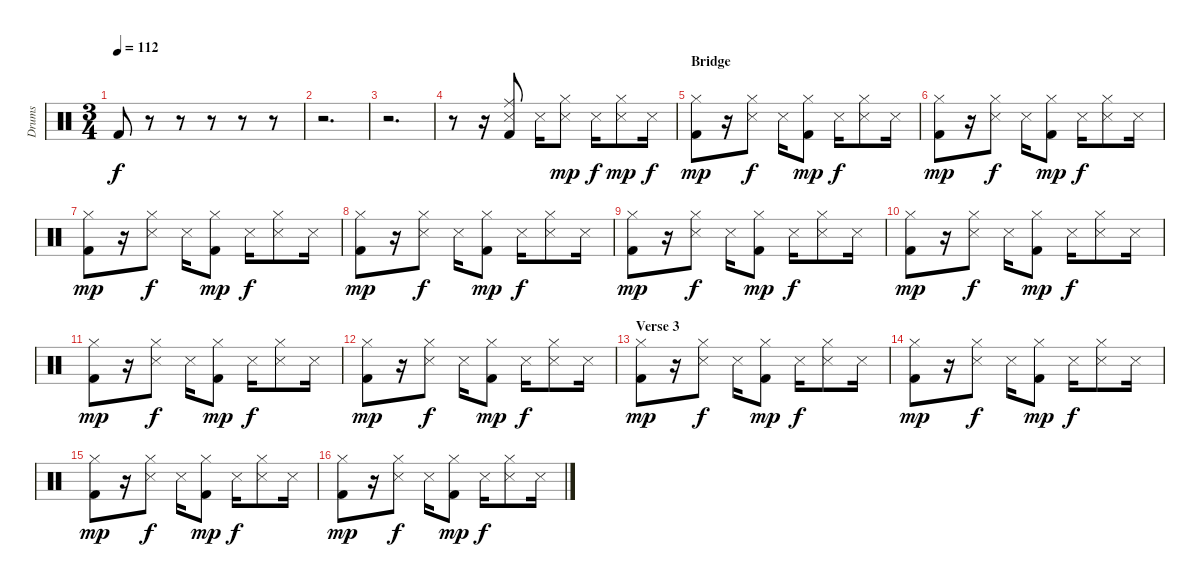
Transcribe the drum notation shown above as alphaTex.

\track ("Drums" "Drums") {instrument percussion}
\staff {score}
\articulation defaults
\ts (3 4)
\tempo 112
\clef neutral
\ks c "Kick (hit) 2".8{dy f}
r.8 r.8 r.8 r.8 r.8 |
r.2{d} |
r.2{d} |
r.8 r.16 ("Ride (middle)" "Snare (side stick) 3" "Kick (hit) 2").8 "Snare (side stick) 3".16 ("Hi-Hat (closed)" "Snare (side stick) 3").8{dy mp} "Snare (side stick) 3".16{dy f} ("Hi-Hat (closed)" "Snare (side stick) 3").8{dy mp} "Snare (side stick) 3".16{dy f} |
\section ("" "Bridge")
("Hi-Hat (closed)" "Kick (hit) 2").8{dy mp} r.16 ("Hi-Hat (closed)" "Snare (side stick) 3").8{dy f} "Snare (side stick) 3".16 ("Hi-Hat (closed)" "Kick (hit) 2").8{dy mp} "Snare (side stick) 3".16{dy f} ("Hi-Hat (closed)" "Snare (side stick) 3").8 "Snare (side stick) 3".16 |
("Hi-Hat (closed)" "Kick (hit) 2").8{dy mp} r.16 ("Hi-Hat (closed)" "Snare (side stick) 3").8{dy f} "Snare (side stick) 3".16 ("Hi-Hat (closed)" "Kick (hit) 2").8{dy mp} "Snare (side stick) 3".16{dy f} ("Hi-Hat (closed)" "Snare (side stick) 3").8 "Snare (side stick) 3".16 |
("Hi-Hat (closed)" "Kick (hit) 2").8{dy mp} r.16 ("Hi-Hat (closed)" "Snare (side stick) 3").8{dy f} "Snare (side stick) 3".16 ("Hi-Hat (closed)" "Kick (hit) 2").8{dy mp} "Snare (side stick) 3".16{dy f} ("Hi-Hat (closed)" "Snare (side stick) 3").8 "Snare (side stick) 3".16 |
("Hi-Hat (closed)" "Kick (hit) 2").8{dy mp} r.16 ("Hi-Hat (closed)" "Snare (side stick) 3").8{dy f} "Snare (side stick) 3".16 ("Hi-Hat (closed)" "Kick (hit) 2").8{dy mp} "Snare (side stick) 3".16{dy f} ("Hi-Hat (closed)" "Snare (side stick) 3").8 "Snare (side stick) 3".16 |
("Hi-Hat (closed)" "Kick (hit) 2").8{dy mp} r.16 ("Hi-Hat (closed)" "Snare (side stick) 3").8{dy f} "Snare (side stick) 3".16 ("Hi-Hat (closed)" "Kick (hit) 2").8{dy mp} "Snare (side stick) 3".16{dy f} ("Hi-Hat (closed)" "Snare (side stick) 3").8 "Snare (side stick) 3".16 |
("Hi-Hat (closed)" "Kick (hit) 2").8{dy mp} r.16 ("Hi-Hat (closed)" "Snare (side stick) 3").8{dy f} "Snare (side stick) 3".16 ("Hi-Hat (closed)" "Kick (hit) 2").8{dy mp} "Snare (side stick) 3".16{dy f} ("Hi-Hat (closed)" "Snare (side stick) 3").8 "Snare (side stick) 3".16 |
("Hi-Hat (closed)" "Kick (hit) 2").8{dy mp} r.16 ("Hi-Hat (closed)" "Snare (side stick) 3").8{dy f} "Snare (side stick) 3".16 ("Hi-Hat (closed)" "Kick (hit) 2").8{dy mp} "Snare (side stick) 3".16{dy f} ("Hi-Hat (closed)" "Snare (side stick) 3").8 "Snare (side stick) 3".16 |
("Hi-Hat (closed)" "Kick (hit) 2").8{dy mp} r.16 ("Hi-Hat (closed)" "Snare (side stick) 3").8{dy f} "Snare (side stick) 3".16 ("Hi-Hat (closed)" "Kick (hit) 2").8{dy mp} "Snare (side stick) 3".16{dy f} ("Hi-Hat (closed)" "Snare (side stick) 3").8 "Snare (side stick) 3".16 |
\section ("" "Verse 3")
("Hi-Hat (closed)" "Kick (hit) 2").8{dy mp} r.16 ("Hi-Hat (closed)" "Snare (side stick) 3").8{dy f} "Snare (side stick) 3".16 ("Hi-Hat (closed)" "Kick (hit) 2").8{dy mp} "Snare (side stick) 3".16{dy f} ("Hi-Hat (closed)" "Snare (side stick) 3").8 "Snare (side stick) 3".16 |
("Hi-Hat (closed)" "Kick (hit) 2").8{dy mp} r.16 ("Hi-Hat (closed)" "Snare (side stick) 3").8{dy f} "Snare (side stick) 3".16 ("Hi-Hat (closed)" "Kick (hit) 2").8{dy mp} "Snare (side stick) 3".16{dy f} ("Hi-Hat (closed)" "Snare (side stick) 3").8 "Snare (side stick) 3".16 |
("Hi-Hat (closed)" "Kick (hit) 2").8{dy mp} r.16 ("Hi-Hat (closed)" "Snare (side stick) 3").8{dy f} "Snare (side stick) 3".16 ("Hi-Hat (closed)" "Kick (hit) 2").8{dy mp} "Snare (side stick) 3".16{dy f} ("Hi-Hat (closed)" "Snare (side stick) 3").8 "Snare (side stick) 3".16 |
("Hi-Hat (closed)" "Kick (hit) 2").8{dy mp} r.16 ("Hi-Hat (closed)" "Snare (side stick) 3").8{dy f} "Snare (side stick) 3".16 ("Hi-Hat (closed)" "Kick (hit) 2").8{dy mp} "Snare (side stick) 3".16{dy f} ("Hi-Hat (closed)" "Snare (side stick) 3").8 "Snare (side stick) 3".16
